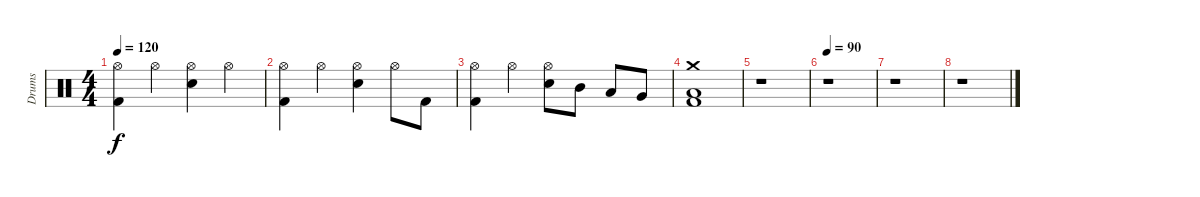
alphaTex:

\track ("Drums" "Drums") {instrument percussion}
\staff {score}
\articulation defaults
\ts (4 4)
\tempo 120
\clef neutral
\ks c
("Kick (hit) 2" "Hi-Hat (open)").4{dy f} "Hi-Hat (open)".4 ("Electric Snare (hit)" "Hi-Hat (open)").4 "Hi-Hat (open)".4 |
("Kick (hit) 2" "Hi-Hat (open)").4 "Hi-Hat (open)".4 ("Electric Snare (hit)" "Hi-Hat (open)").4 "Hi-Hat (open)".8 "Kick (hit) 2".8 |
("Kick (hit) 2" "Hi-Hat (open)").4 "Hi-Hat (open)".4 ("Electric Snare (hit)" "Hi-Hat (open)").8 "Mid Tom (hit)".8 "Low Tom (hit)".8 "Very Low Tom (hit)".8 |
("Kick (hit) 2" "Low Floor Tom (hit)" "Crash medium (hit)").1 |
r.1 |
\tempo 90
r.1 |
r.1 |
r.1
